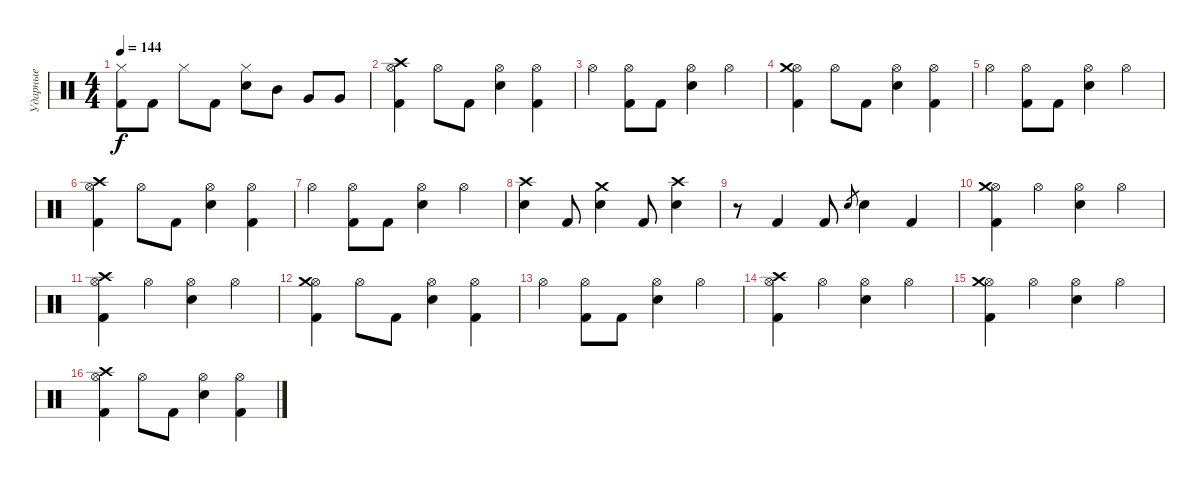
\track ("Ударные" "Ударные") {instrument percussion}
\staff {score}
\articulation defaults
\ts (4 4)
\tempo 144
\clef neutral
\ks c
("Kick (hit) 2" "Hi-Hat (closed)").8{dy f} "Kick (hit) 2".8 "Hi-Hat (closed)".8 "Kick (hit) 2".8 ("Snare (hit) 2" "Hi-Hat (closed)").8 "Mid Tom (hit)".8 "Very Low Tom (hit)".8 "Very Low Tom (hit)".8 |
("Kick (hit) 2" "Hi-Hat (open)" "Crash high (hit)").4 "Hi-Hat (open)".8 "Kick (hit) 2".8 ("Snare (hit) 2" "Hi-Hat (open)").4 ("Kick (hit) 2" "Hi-Hat (open)").4 |
"Hi-Hat (open)".4 ("Kick (hit) 2" "Hi-Hat (open)").8 "Kick (hit) 2".8 ("Snare (hit) 2" "Hi-Hat (open)").4 "Hi-Hat (open)".4 |
("Kick (hit) 2" "Hi-Hat (open)" "Crash medium (hit)").4 "Hi-Hat (open)".8 "Kick (hit) 2".8 ("Snare (hit) 2" "Hi-Hat (open)").4 ("Kick (hit) 2" "Hi-Hat (open)").4 |
"Hi-Hat (open)".4 ("Kick (hit) 2" "Hi-Hat (open)").8 "Kick (hit) 2".8 ("Snare (hit) 2" "Hi-Hat (open)").4 "Hi-Hat (open)".4 |
("Kick (hit) 2" "Hi-Hat (open)" "Crash high (hit)").4 "Hi-Hat (open)".8 "Kick (hit) 2".8 ("Snare (hit) 2" "Hi-Hat (open)").4 ("Kick (hit) 2" "Hi-Hat (open)").4 |
"Hi-Hat (open)".4 ("Kick (hit) 2" "Hi-Hat (open)").8 "Kick (hit) 2".8 ("Snare (hit) 2" "Hi-Hat (open)").4 "Hi-Hat (open)".4 |
("Snare (hit) 2" "Crash high (hit)").4 "Kick (hit) 2".8 ("Snare (hit) 2" "Crash medium (hit)").4 "Kick (hit) 2".8 ("Snare (hit) 2" "Crash high (hit)").4 |
r.8 "Kick (hit) 2".4 "Kick (hit) 2".8 "Snare (hit) 2".8{gr} "Snare (hit) 2".4 "Kick (hit) 2".4 |
("Kick (hit) 2" "Hi-Hat (open)" "Crash medium (hit)").4 "Hi-Hat (open)".4 ("Snare (hit) 2" "Hi-Hat (open)").4 "Hi-Hat (open)".4 |
("Kick (hit) 2" "Hi-Hat (open)" "Crash high (hit)").4 "Hi-Hat (open)".4 ("Snare (hit) 2" "Hi-Hat (open)").4 "Hi-Hat (open)".4 |
("Kick (hit) 2" "Hi-Hat (open)" "Crash medium (hit)").4 "Hi-Hat (open)".8 "Kick (hit) 2".8 ("Snare (hit) 2" "Hi-Hat (open)").4 ("Kick (hit) 2" "Hi-Hat (open)").4 |
"Hi-Hat (open)".4 ("Kick (hit) 2" "Hi-Hat (open)").8 "Kick (hit) 2".8 ("Snare (hit) 2" "Hi-Hat (open)").4 "Hi-Hat (open)".4 |
("Kick (hit) 2" "Hi-Hat (open)" "Crash high (hit)").4 "Hi-Hat (open)".4 ("Snare (hit) 2" "Hi-Hat (open)").4 "Hi-Hat (open)".4 |
("Kick (hit) 2" "Hi-Hat (open)" "Crash medium (hit)").4 "Hi-Hat (open)".4 ("Snare (hit) 2" "Hi-Hat (open)").4 "Hi-Hat (open)".4 |
("Kick (hit) 2" "Hi-Hat (open)" "Crash high (hit)").4 "Hi-Hat (open)".8 "Kick (hit) 2".8 ("Snare (hit) 2" "Hi-Hat (open)").4 ("Kick (hit) 2" "Hi-Hat (open)").4
